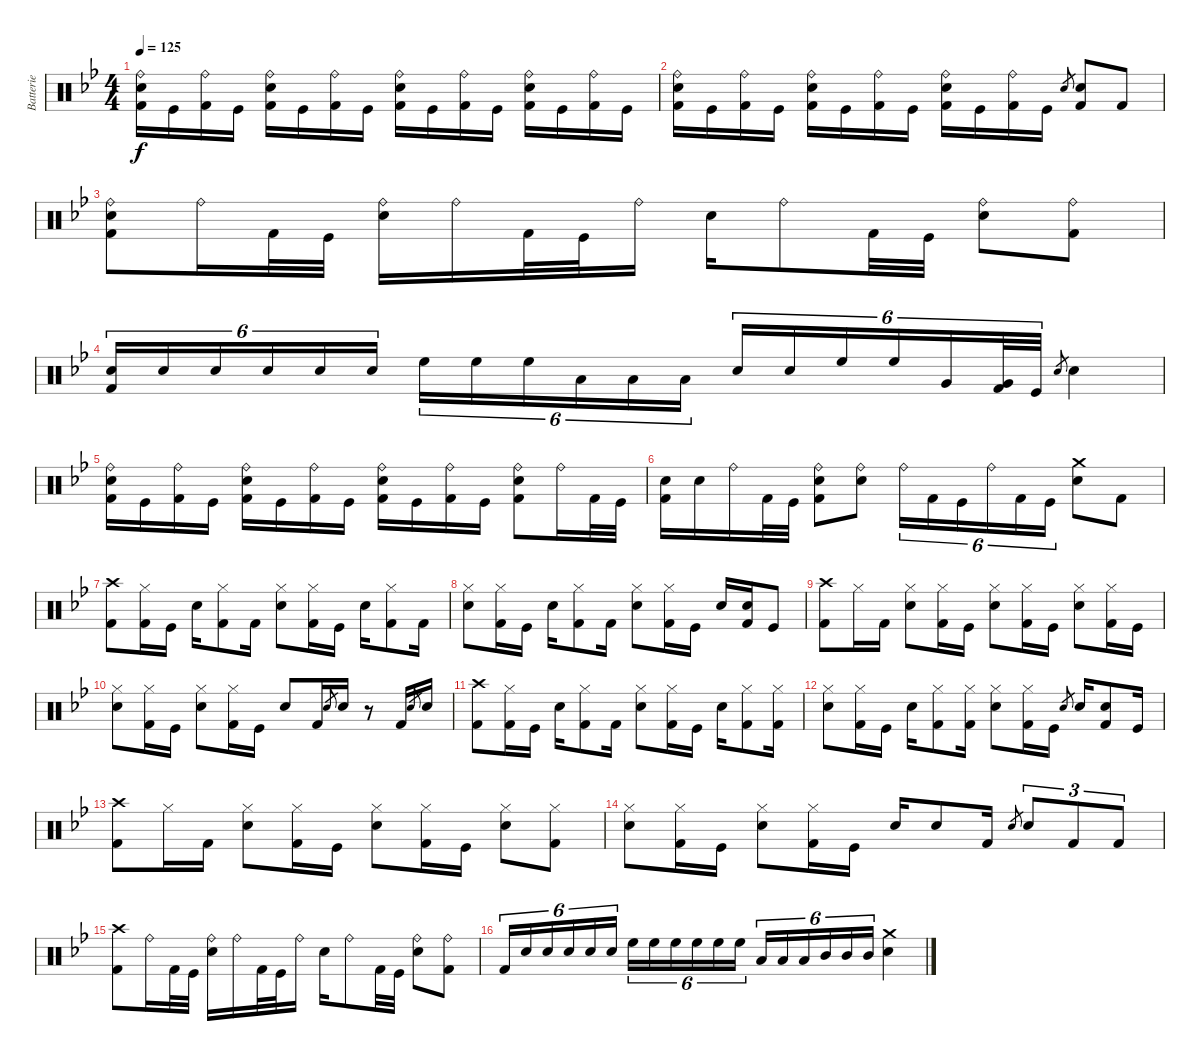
\track ("Batterie" "Batterie") {instrument percussion}
\staff {score}
\articulation defaults
\ts (4 4)
\tempo 125
\clef neutral
\ks bb
("Ride (bell)" "Electric Snare (hit)" "Kick (hit) 2").16{dy f} "Kick (hit)".16 ("Ride (bell)" "Kick (hit) 2").16 "Kick (hit)".16 ("Ride (bell)" "Electric Snare (hit)" "Kick (hit) 2").16 "Kick (hit)".16 ("Ride (bell)" "Kick (hit) 2").16 "Kick (hit)".16 ("Ride (bell)" "Electric Snare (hit)" "Kick (hit) 2").16 "Kick (hit)".16 ("Ride (bell)" "Kick (hit) 2").16 "Kick (hit)".16 ("Ride (bell)" "Electric Snare (hit)" "Kick (hit) 2").16 "Kick (hit)".16 ("Ride (bell)" "Kick (hit) 2").16 "Kick (hit)".16 |
("Ride (bell)" "Electric Snare (hit)" "Kick (hit) 2").16 "Kick (hit)".16 ("Ride (bell)" "Kick (hit) 2").16 "Kick (hit)".16 ("Ride (bell)" "Electric Snare (hit)" "Kick (hit) 2").16 "Kick (hit)".16 ("Ride (bell)" "Kick (hit) 2").16 "Kick (hit)".16 ("Ride (bell)" "Electric Snare (hit)" "Kick (hit) 2").16 "Kick (hit)".16 ("Ride (bell)" "Kick (hit) 2").16 "Kick (hit)".16 "Electric Snare (hit)".8{gr} ("Electric Snare (hit)" "Kick (hit) 2").8 "Kick (hit) 2".8 |
("Ride (bell)" "Electric Snare (hit)" "Kick (hit) 2").8 "Ride (bell)".16 "Kick (hit) 2".32 "Kick (hit)".32 ("Ride (bell)" "Electric Snare (hit)").16 "Ride (bell)".16 "Kick (hit) 2".32 "Kick (hit)".32 "Ride (bell)".16 "Electric Snare (hit)".16 "Ride (bell)".8 "Kick (hit) 2".32 "Kick (hit)".32 ("Ride (bell)" "Electric Snare (hit)").8 ("Ride (bell)" "Kick (hit) 2").8 |
("Electric Snare (hit)" "Kick (hit) 2").16{tu (6 4)} "Electric Snare (hit)".16{tu (6 4)} "Electric Snare (hit)".16{tu (6 4)} "Electric Snare (hit)".16{tu (6 4)} "Electric Snare (hit)".16{tu (6 4)} "Electric Snare (hit)".16{tu (6 4)} "High Floor Tom (hit)".16{tu (6 4)} "High Floor Tom (hit)".16{tu (6 4)} "High Floor Tom (hit)".16{tu (6 4)} "Low Tom (hit)".16{tu (6 4)} "Low Tom (hit)".16{tu (6 4)} "Low Tom (hit)".16{tu (6 4)} "Electric Snare (hit)".16{tu (6 4)} "Electric Snare (hit)".16{tu (6 4)} "High Floor Tom (hit)".16{tu (6 4)} "High Floor Tom (hit)".16{tu (6 4)} "Very Low Tom (hit)".16{tu (6 4)} ("Very Low Tom (hit)" "Kick (hit) 2").32{tu (6 4)} "Kick (hit)".32{tu (6 4)} "Electric Snare (hit)".8{gr} "Electric Snare (hit)".4 |
("Ride (bell)" "Electric Snare (hit)" "Kick (hit) 2").16 "Kick (hit)".16 ("Ride (bell)" "Kick (hit) 2").16 "Kick (hit)".16 ("Ride (bell)" "Electric Snare (hit)" "Kick (hit) 2").16 "Kick (hit)".16 ("Ride (bell)" "Kick (hit) 2").16 "Kick (hit)".16 ("Ride (bell)" "Electric Snare (hit)" "Kick (hit) 2").16 "Kick (hit)".16 ("Ride (bell)" "Kick (hit) 2").16 "Kick (hit)".16 ("Ride (bell)" "Electric Snare (hit)" "Kick (hit) 2").8 "Ride (bell)".16 "Kick (hit) 2".32 "Kick (hit)".32 |
("Electric Snare (hit)" "Kick (hit) 2").16 "Electric Snare (hit)".16 "Ride (bell)".16 "Kick (hit) 2".32 "Kick (hit)".32 ("Ride (bell)" "Electric Snare (hit)" "Kick (hit) 2").8 ("Ride (bell)" "Electric Snare (hit)").8 "Ride (bell)".16{tu (6 4)} "Kick (hit) 2".16{tu (6 4)} "Kick (hit)".16{tu (6 4)} "Ride (bell)".16{tu (6 4)} "Kick (hit) 2".16{tu (6 4)} "Kick (hit)".16{tu (6 4)} ("Crash medium (hit)" "Electric Snare (hit)").8 "Kick (hit) 2".8 |
("Crash high (hit)" "Kick (hit) 2").8 ("Hi-Hat (closed)" "Kick (hit) 2").16 "Kick (hit)".16 "Electric Snare (hit)".16 ("Hi-Hat (closed)" "Kick (hit) 2").8 "Kick (hit) 2".16 ("Hi-Hat (closed)" "Electric Snare (hit)").8 ("Hi-Hat (closed)" "Kick (hit) 2").16 "Kick (hit)".16 "Electric Snare (hit)".16 ("Hi-Hat (closed)" "Kick (hit) 2").8 "Kick (hit) 2".16 |
("Hi-Hat (closed)" "Electric Snare (hit)").8 ("Hi-Hat (closed)" "Kick (hit) 2").16 "Kick (hit)".16 "Electric Snare (hit)".16 ("Hi-Hat (closed)" "Kick (hit) 2").8 "Kick (hit) 2".16 ("Hi-Hat (closed)" "Electric Snare (hit)").8 ("Hi-Hat (closed)" "Kick (hit) 2").16 "Kick (hit)".16 "Electric Snare (hit)".16 ("Electric Snare (hit)" "Kick (hit) 2").16 "Kick (hit)".8 |
("Crash high (hit)" "Kick (hit) 2").8 "Hi-Hat (closed)".16 "Kick (hit) 2".16 ("Hi-Hat (closed)" "Electric Snare (hit)").8 ("Hi-Hat (closed)" "Kick (hit) 2").16 "Kick (hit)".16 ("Hi-Hat (closed)" "Electric Snare (hit)").8 ("Hi-Hat (closed)" "Kick (hit) 2").16 "Kick (hit)".16 ("Hi-Hat (closed)" "Electric Snare (hit)").8 ("Hi-Hat (closed)" "Kick (hit) 2").16 "Kick (hit)".16 |
("Hi-Hat (closed)" "Electric Snare (hit)").8 ("Hi-Hat (closed)" "Kick (hit) 2").16 "Kick (hit)".16 ("Hi-Hat (closed)" "Electric Snare (hit)").8 ("Hi-Hat (closed)" "Kick (hit) 2").16 "Kick (hit)".16 "Electric Snare (hit)".8 "Kick (hit) 2".16 "Electric Snare (hit)".8{gr} "Electric Snare (hit)".16 r.8 "Kick (hit) 2".16 "Electric Snare (hit)".8{gr} "Electric Snare (hit)".16 |
("Crash high (hit)" "Kick (hit) 2").8 ("Hi-Hat (closed)" "Kick (hit) 2").16 "Kick (hit)".16 "Electric Snare (hit)".16 ("Hi-Hat (closed)" "Kick (hit) 2").8 "Kick (hit) 2".16 ("Hi-Hat (closed)" "Electric Snare (hit)").8 ("Hi-Hat (closed)" "Kick (hit) 2").16 "Kick (hit)".16 "Electric Snare (hit)".16 ("Hi-Hat (closed)" "Kick (hit) 2").8 ("Hi-Hat (closed)" "Kick (hit) 2").16 |
("Hi-Hat (closed)" "Electric Snare (hit)").8 ("Hi-Hat (closed)" "Kick (hit) 2").16 "Kick (hit)".16 "Electric Snare (hit)".16 ("Hi-Hat (closed)" "Kick (hit) 2").8 ("Hi-Hat (closed)" "Kick (hit) 2").16 ("Hi-Hat (closed)" "Electric Snare (hit)").8 ("Hi-Hat (closed)" "Kick (hit) 2").16 "Kick (hit)".16 "Electric Snare (hit)".8{gr} "Electric Snare (hit)".16 ("Electric Snare (hit)" "Kick (hit) 2").8 "Kick (hit)".16 |
("Crash high (hit)" "Kick (hit) 2").8 "Hi-Hat (closed)".16 "Kick (hit) 2".16 ("Hi-Hat (closed)" "Electric Snare (hit)").8 ("Hi-Hat (closed)" "Kick (hit) 2").16 "Kick (hit)".16 ("Hi-Hat (closed)" "Electric Snare (hit)").8 ("Hi-Hat (closed)" "Kick (hit) 2").16 "Kick (hit)".16 ("Hi-Hat (closed)" "Electric Snare (hit)").8 ("Hi-Hat (closed)" "Kick (hit) 2").8 |
("Hi-Hat (closed)" "Electric Snare (hit)").8 ("Hi-Hat (closed)" "Kick (hit) 2").16 "Kick (hit)".16 ("Hi-Hat (closed)" "Electric Snare (hit)").8 ("Hi-Hat (closed)" "Kick (hit) 2").16 "Kick (hit)".16 "Electric Snare (hit)".16 "Electric Snare (hit)".8 "Kick (hit) 2".16 "Electric Snare (hit)".8{gr} "Electric Snare (hit)".8{tu (3 2)} "Kick (hit) 2".8{tu (3 2)} "Kick (hit) 2".8{tu (3 2)} |
("Crash high (hit)" "Kick (hit) 2").8 "Ride (bell)".16 "Kick (hit) 2".32 "Kick (hit)".32 ("Ride (bell)" "Electric Snare (hit)").16 "Ride (bell)".16 "Kick (hit) 2".32 "Kick (hit)".32 "Ride (bell)".16 "Electric Snare (hit)".16 "Ride (bell)".8 "Kick (hit) 2".32 "Kick (hit)".32 ("Ride (bell)" "Electric Snare (hit)").8 ("Ride (bell)" "Kick (hit) 2").8 |
"Kick (hit) 2".16{tu (6 4)} "Electric Snare (hit)".16{tu (6 4)} "Electric Snare (hit)".16{tu (6 4)} "Electric Snare (hit)".16{tu (6 4)} "Electric Snare (hit)".16{tu (6 4)} "Electric Snare (hit)".16{tu (6 4)} "High Floor Tom (hit)".16{tu (6 4)} "High Floor Tom (hit)".16{tu (6 4)} "High Floor Tom (hit)".16{tu (6 4)} "High Floor Tom (hit)".16{tu (6 4)} "High Floor Tom (hit)".16{tu (6 4)} "High Floor Tom (hit)".16{tu (6 4)} "Low Tom (hit)".16{tu (6 4)} "Low Tom (hit)".16{tu (6 4)} "Low Tom (hit)".16{tu (6 4)} "Mid Tom (hit)".16{tu (6 4)} "Mid Tom (hit)".16{tu (6 4)} "Mid Tom (hit)".16{tu (6 4)} ("Crash medium (hit)" "Electric Snare (hit)").4
